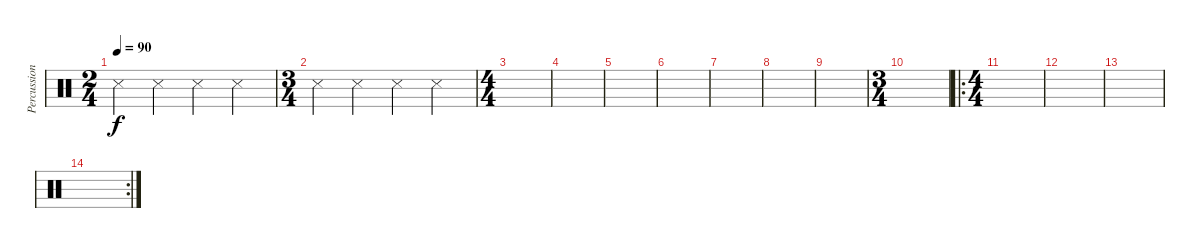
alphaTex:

\track ("Percussions" "Percussion") {instrument percussion}
\staff {score}
\articulation defaults
\ts (2 4)
\tempo 90
\clef neutral
\ks c "Metronome (hit)".4{dy f} "Metronome (hit)".4 "Metronome (hit)".4 "Metronome (hit)".4
|
\ts (3 4)
"Metronome (hit)".4 "Metronome (hit)".4 "Metronome (hit)".4 "Metronome (hit)".4 |
\ts (4 4)
|
|
|
|
|
|
|
\ts (3 4)
|
\ro
\ts (4 4)
|
|
|
\rc 2
